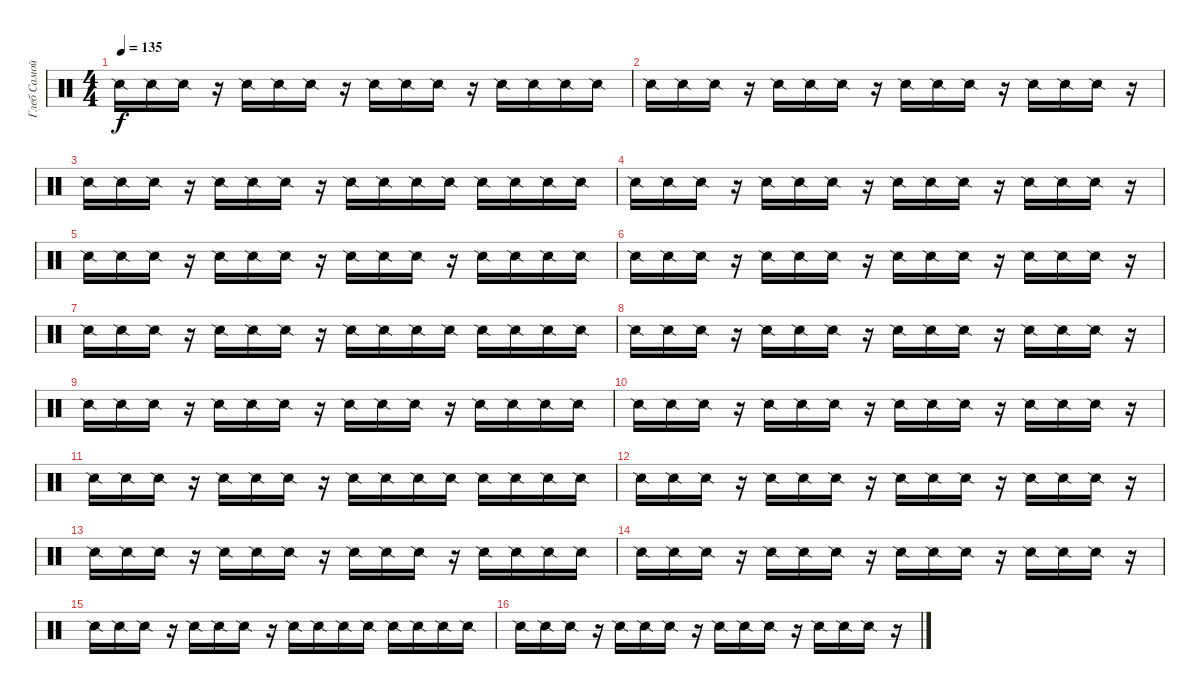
\track ("Глеб Самойлов (fx)" "Глеб Самой") {instrument percussion}
\staff {score}
\articulation defaults
\ts (4 4)
\tempo 135
\clef neutral
\ks c "Snare (side stick) 2".16{dy f} "Snare (side stick) 2".16 "Snare (side stick) 2".16
r.16 "Snare (side stick) 2".16 "Snare (side stick) 2".16 "Snare (side stick) 2".16 r.16 "Snare (side stick) 2".16 "Snare (side stick) 2".16 "Snare (side stick) 2".16 r.16 "Snare (side stick) 2".16 "Snare (side stick) 2".16 "Snare (side stick) 2".16 "Snare (side stick) 2".16 |
"Snare (side stick) 2".16 "Snare (side stick) 2".16 "Snare (side stick) 2".16 r.16 "Snare (side stick) 2".16 "Snare (side stick) 2".16 "Snare (side stick) 2".16 r.16 "Snare (side stick) 2".16 "Snare (side stick) 2".16 "Snare (side stick) 2".16 r.16 "Snare (side stick) 2".16 "Snare (side stick) 2".16 "Snare (side stick) 2".16 r.16 |
"Snare (side stick) 2".16 "Snare (side stick) 2".16 "Snare (side stick) 2".16 r.16 "Snare (side stick) 2".16 "Snare (side stick) 2".16 "Snare (side stick) 2".16 r.16 "Snare (side stick) 2".16 "Snare (side stick) 2".16 "Snare (side stick) 2".16 "Snare (side stick) 2".16 "Snare (side stick) 2".16 "Snare (side stick) 2".16 "Snare (side stick) 2".16 "Snare (side stick) 2".16 |
"Snare (side stick) 2".16 "Snare (side stick) 2".16 "Snare (side stick) 2".16 r.16 "Snare (side stick) 2".16 "Snare (side stick) 2".16 "Snare (side stick) 2".16 r.16 "Snare (side stick) 2".16 "Snare (side stick) 2".16 "Snare (side stick) 2".16 r.16 "Snare (side stick) 2".16 "Snare (side stick) 2".16 "Snare (side stick) 2".16 r.16 |
"Snare (side stick) 2".16 "Snare (side stick) 2".16 "Snare (side stick) 2".16 r.16 "Snare (side stick) 2".16 "Snare (side stick) 2".16 "Snare (side stick) 2".16 r.16 "Snare (side stick) 2".16 "Snare (side stick) 2".16 "Snare (side stick) 2".16 r.16 "Snare (side stick) 2".16 "Snare (side stick) 2".16 "Snare (side stick) 2".16 "Snare (side stick) 2".16 |
"Snare (side stick) 2".16 "Snare (side stick) 2".16 "Snare (side stick) 2".16 r.16 "Snare (side stick) 2".16 "Snare (side stick) 2".16 "Snare (side stick) 2".16 r.16 "Snare (side stick) 2".16 "Snare (side stick) 2".16 "Snare (side stick) 2".16 r.16 "Snare (side stick) 2".16 "Snare (side stick) 2".16 "Snare (side stick) 2".16 r.16 |
"Snare (side stick) 2".16 "Snare (side stick) 2".16 "Snare (side stick) 2".16 r.16 "Snare (side stick) 2".16 "Snare (side stick) 2".16 "Snare (side stick) 2".16 r.16 "Snare (side stick) 2".16 "Snare (side stick) 2".16 "Snare (side stick) 2".16 "Snare (side stick) 2".16 "Snare (side stick) 2".16 "Snare (side stick) 2".16 "Snare (side stick) 2".16 "Snare (side stick) 2".16 |
"Snare (side stick) 2".16 "Snare (side stick) 2".16 "Snare (side stick) 2".16 r.16 "Snare (side stick) 2".16 "Snare (side stick) 2".16 "Snare (side stick) 2".16 r.16 "Snare (side stick) 2".16 "Snare (side stick) 2".16 "Snare (side stick) 2".16 r.16 "Snare (side stick) 2".16 "Snare (side stick) 2".16 "Snare (side stick) 2".16 r.16 |
"Snare (side stick) 2".16 "Snare (side stick) 2".16 "Snare (side stick) 2".16 r.16 "Snare (side stick) 2".16 "Snare (side stick) 2".16 "Snare (side stick) 2".16 r.16 "Snare (side stick) 2".16 "Snare (side stick) 2".16 "Snare (side stick) 2".16 r.16 "Snare (side stick) 2".16 "Snare (side stick) 2".16 "Snare (side stick) 2".16 "Snare (side stick) 2".16 |
"Snare (side stick) 2".16 "Snare (side stick) 2".16 "Snare (side stick) 2".16 r.16 "Snare (side stick) 2".16 "Snare (side stick) 2".16 "Snare (side stick) 2".16 r.16 "Snare (side stick) 2".16 "Snare (side stick) 2".16 "Snare (side stick) 2".16 r.16 "Snare (side stick) 2".16 "Snare (side stick) 2".16 "Snare (side stick) 2".16 r.16 |
"Snare (side stick) 2".16 "Snare (side stick) 2".16 "Snare (side stick) 2".16 r.16 "Snare (side stick) 2".16 "Snare (side stick) 2".16 "Snare (side stick) 2".16 r.16 "Snare (side stick) 2".16 "Snare (side stick) 2".16 "Snare (side stick) 2".16 "Snare (side stick) 2".16 "Snare (side stick) 2".16 "Snare (side stick) 2".16 "Snare (side stick) 2".16 "Snare (side stick) 2".16 |
"Snare (side stick) 2".16 "Snare (side stick) 2".16 "Snare (side stick) 2".16 r.16 "Snare (side stick) 2".16 "Snare (side stick) 2".16 "Snare (side stick) 2".16 r.16 "Snare (side stick) 2".16 "Snare (side stick) 2".16 "Snare (side stick) 2".16 r.16 "Snare (side stick) 2".16 "Snare (side stick) 2".16 "Snare (side stick) 2".16 r.16 |
"Snare (side stick) 2".16 "Snare (side stick) 2".16 "Snare (side stick) 2".16 r.16 "Snare (side stick) 2".16 "Snare (side stick) 2".16 "Snare (side stick) 2".16 r.16 "Snare (side stick) 2".16 "Snare (side stick) 2".16 "Snare (side stick) 2".16 r.16 "Snare (side stick) 2".16 "Snare (side stick) 2".16 "Snare (side stick) 2".16 "Snare (side stick) 2".16 |
"Snare (side stick) 2".16 "Snare (side stick) 2".16 "Snare (side stick) 2".16 r.16 "Snare (side stick) 2".16 "Snare (side stick) 2".16 "Snare (side stick) 2".16 r.16 "Snare (side stick) 2".16 "Snare (side stick) 2".16 "Snare (side stick) 2".16 r.16 "Snare (side stick) 2".16 "Snare (side stick) 2".16 "Snare (side stick) 2".16 r.16 |
"Snare (side stick) 2".16 "Snare (side stick) 2".16 "Snare (side stick) 2".16 r.16 "Snare (side stick) 2".16 "Snare (side stick) 2".16 "Snare (side stick) 2".16 r.16 "Snare (side stick) 2".16 "Snare (side stick) 2".16 "Snare (side stick) 2".16 "Snare (side stick) 2".16 "Snare (side stick) 2".16 "Snare (side stick) 2".16 "Snare (side stick) 2".16 "Snare (side stick) 2".16 |
"Snare (side stick) 2".16 "Snare (side stick) 2".16 "Snare (side stick) 2".16 r.16 "Snare (side stick) 2".16 "Snare (side stick) 2".16 "Snare (side stick) 2".16 r.16 "Snare (side stick) 2".16 "Snare (side stick) 2".16 "Snare (side stick) 2".16 r.16 "Snare (side stick) 2".16 "Snare (side stick) 2".16 "Snare (side stick) 2".16 r.16
